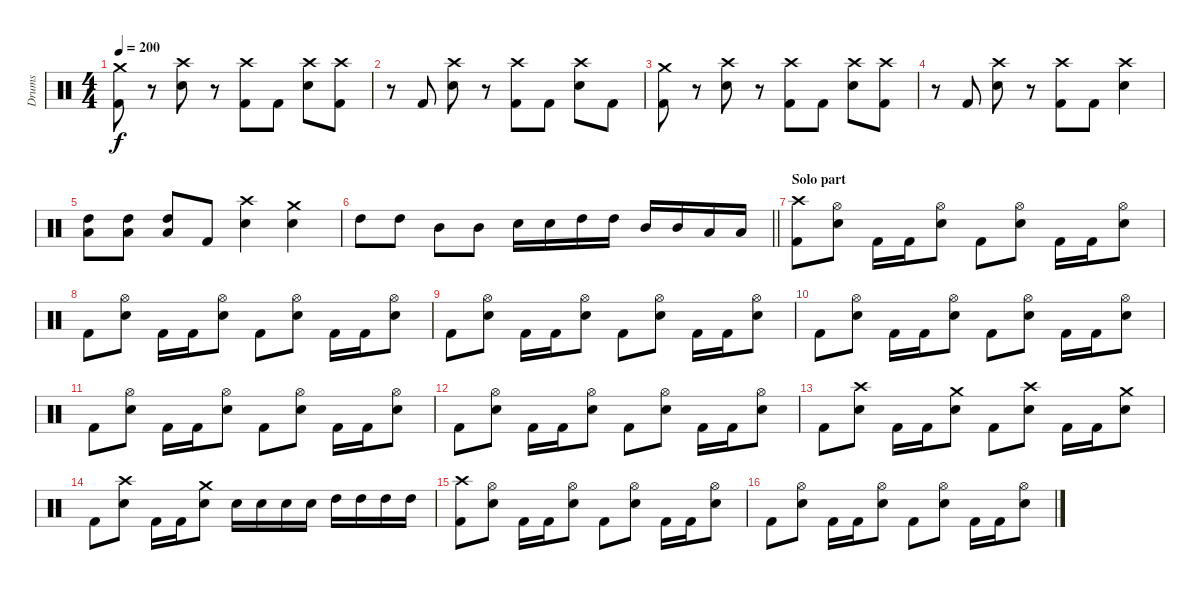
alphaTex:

\track ("Drums" "Drums") {instrument percussion}
\staff {score}
\articulation defaults
\ts (4 4)
\tempo 200
\clef neutral
\ks c
("Crash medium (hit)" "Kick (hit) 2").8{dy f} r.8 ("Crash high (hit)" "Electric Snare (hit)").8 r.8 ("Crash high (hit)" "Kick (hit) 2").8 "Kick (hit) 2".8 ("Crash high (hit)" "Electric Snare (hit)").8 ("Crash high (hit)" "Kick (hit) 2").8 |
r.8 "Kick (hit) 2".8 ("Crash high (hit)" "Electric Snare (hit)").8 r.8 ("Crash high (hit)" "Kick (hit) 2").8 "Kick (hit) 2".8 ("Crash high (hit)" "Electric Snare (hit)").8 "Kick (hit) 2".8 |
("Crash medium (hit)" "Kick (hit) 2").8 r.8 ("Crash high (hit)" "Electric Snare (hit)").8 r.8 ("Crash high (hit)" "Kick (hit) 2").8 "Kick (hit) 2".8 ("Crash high (hit)" "Electric Snare (hit)").8 ("Crash high (hit)" "Kick (hit) 2").8 |
r.8 "Kick (hit) 2".8 ("Crash high (hit)" "Electric Snare (hit)").8 r.8 ("Crash high (hit)" "Kick (hit) 2").8 "Kick (hit) 2".8 ("Crash high (hit)" "Electric Snare (hit)").4 |
("High Tom (hit)" "Low Floor Tom (hit)").8 ("High Tom (hit)" "Low Floor Tom (hit)").8 ("High Tom (hit)" "Low Floor Tom (hit)").8 "Kick (hit) 2".8 ("Crash high (hit)" "Electric Snare (hit)").4 ("Crash medium (hit)" "Electric Snare (hit)").4 |
\barLineRight lightlight "High Tom (hit)".8 "High Tom (hit)".8 "Mid Tom (hit)".8 "Mid Tom (hit)".8 "Electric Snare (hit)".16 "Electric Snare (hit)".16 "High Tom (hit)".16 "High Tom (hit)".16 "Mid Tom (hit)".16 "Mid Tom (hit)".16 "Low Floor Tom (hit)".16 "Low Floor Tom (hit)".16
|
\section ("" "Solo part")
("Crash high (hit)" "Kick (hit) 2").8 ("Hi-Hat (open)" "Electric Snare (hit)").8 "Kick (hit) 2".16 "Kick (hit) 2".16 ("Hi-Hat (open)" "Electric Snare (hit)").8 "Kick (hit) 2".8 ("Hi-Hat (open)" "Electric Snare (hit)").8 "Kick (hit) 2".16 "Kick (hit) 2".16 ("Hi-Hat (open)" "Electric Snare (hit)").8 |
"Kick (hit) 2".8 ("Hi-Hat (open)" "Electric Snare (hit)").8 "Kick (hit) 2".16 "Kick (hit) 2".16 ("Hi-Hat (open)" "Electric Snare (hit)").8 "Kick (hit) 2".8 ("Hi-Hat (open)" "Electric Snare (hit)").8 "Kick (hit) 2".16 "Kick (hit) 2".16 ("Hi-Hat (open)" "Electric Snare (hit)").8 |
"Kick (hit) 2".8 ("Hi-Hat (open)" "Electric Snare (hit)").8 "Kick (hit) 2".16 "Kick (hit) 2".16 ("Hi-Hat (open)" "Electric Snare (hit)").8 "Kick (hit) 2".8 ("Hi-Hat (open)" "Electric Snare (hit)").8 "Kick (hit) 2".16 "Kick (hit) 2".16 ("Hi-Hat (open)" "Electric Snare (hit)").8 |
"Kick (hit) 2".8 ("Hi-Hat (open)" "Electric Snare (hit)").8 "Kick (hit) 2".16 "Kick (hit) 2".16 ("Hi-Hat (open)" "Electric Snare (hit)").8 "Kick (hit) 2".8 ("Hi-Hat (open)" "Electric Snare (hit)").8 "Kick (hit) 2".16 "Kick (hit) 2".16 ("Hi-Hat (open)" "Electric Snare (hit)").8 |
"Kick (hit) 2".8 ("Hi-Hat (open)" "Electric Snare (hit)").8 "Kick (hit) 2".16 "Kick (hit) 2".16 ("Hi-Hat (open)" "Electric Snare (hit)").8 "Kick (hit) 2".8 ("Hi-Hat (open)" "Electric Snare (hit)").8 "Kick (hit) 2".16 "Kick (hit) 2".16 ("Hi-Hat (open)" "Electric Snare (hit)").8 |
"Kick (hit) 2".8 ("Hi-Hat (open)" "Electric Snare (hit)").8 "Kick (hit) 2".16 "Kick (hit) 2".16 ("Hi-Hat (open)" "Electric Snare (hit)").8 "Kick (hit) 2".8 ("Hi-Hat (open)" "Electric Snare (hit)").8 "Kick (hit) 2".16 "Kick (hit) 2".16 ("Hi-Hat (open)" "Electric Snare (hit)").8 |
"Kick (hit) 2".8 ("Crash high (hit)" "Electric Snare (hit)").8 "Kick (hit) 2".16 "Kick (hit) 2".16 ("Crash medium (hit)" "Electric Snare (hit)").8 "Kick (hit) 2".8 ("Crash high (hit)" "Electric Snare (hit)").8 "Kick (hit) 2".16 "Kick (hit) 2".16 ("Crash medium (hit)" "Electric Snare (hit)").8 |
"Kick (hit) 2".8 ("Crash high (hit)" "Electric Snare (hit)").8 "Kick (hit) 2".16 "Kick (hit) 2".16 ("Crash medium (hit)" "Electric Snare (hit)").8 "Electric Snare (hit)".16 "Electric Snare (hit)".16 "Electric Snare (hit)".16 "Electric Snare (hit)".16 "High Tom (hit)".16 "High Tom (hit)".16 "High Tom (hit)".16 "High Tom (hit)".16 |
("Crash high (hit)" "Kick (hit) 2").8 ("Hi-Hat (open)" "Electric Snare (hit)").8 "Kick (hit) 2".16 "Kick (hit) 2".16 ("Hi-Hat (open)" "Electric Snare (hit)").8 "Kick (hit) 2".8 ("Hi-Hat (open)" "Electric Snare (hit)").8 "Kick (hit) 2".16 "Kick (hit) 2".16 ("Hi-Hat (open)" "Electric Snare (hit)").8 |
"Kick (hit) 2".8 ("Hi-Hat (open)" "Electric Snare (hit)").8 "Kick (hit) 2".16 "Kick (hit) 2".16 ("Hi-Hat (open)" "Electric Snare (hit)").8 "Kick (hit) 2".8 ("Hi-Hat (open)" "Electric Snare (hit)").8 "Kick (hit) 2".16 "Kick (hit) 2".16 ("Hi-Hat (open)" "Electric Snare (hit)").8
